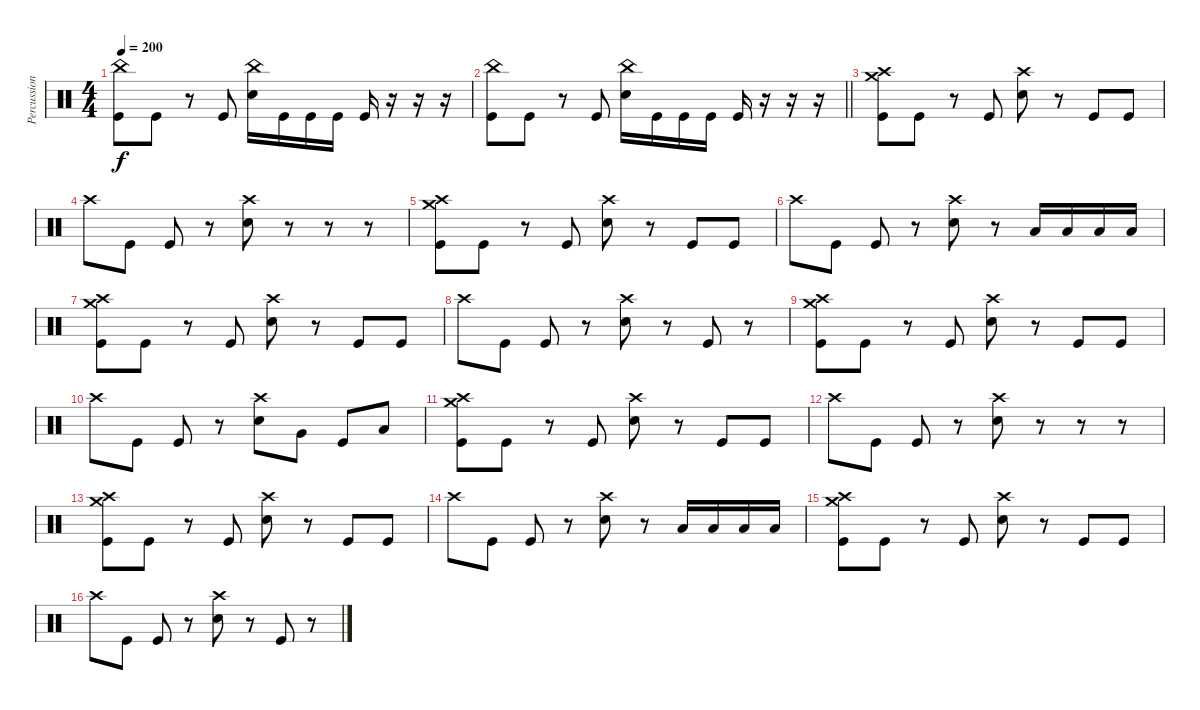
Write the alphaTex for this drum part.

\track ("Percussion" "Percussion") {instrument percussion}
\staff {score}
\articulation defaults
\ts (4 4)
\tempo 200
\clef neutral
\ks c
("China (hit)" "Kick (hit)").8{dy f} "Kick (hit)".8 r.8 "Kick (hit)".8 ("Snare (hit) 2" "China (hit)").16 "Kick (hit)".16 "Kick (hit)".16 "Kick (hit)".16 "Kick (hit)".16 r.16 r.16 r.16 |
\barLineRight lightlight
("China (hit)" "Kick (hit)").8 "Kick (hit)".8 r.8 "Kick (hit)".8 ("Snare (hit) 2" "China (hit)").16 "Kick (hit)".16 "Kick (hit)".16 "Kick (hit)".16 "Kick (hit)".16 r.16 r.16 r.16 |
("Crash high (hit)" "Crash medium (hit)" "Kick (hit)").8 "Kick (hit)".8 r.8 "Kick (hit)".8 ("Crash high (hit)" "Snare (hit) 2").8 r.8 "Kick (hit)".8 "Kick (hit)".8 |
"Crash high (hit)".8 "Kick (hit)".8 "Kick (hit)".8 r.8 ("Crash high (hit)" "Snare (hit) 2").8 r.8 r.8 r.8 |
("Crash high (hit)" "Crash medium (hit)" "Kick (hit)").8 "Kick (hit)".8 r.8 "Kick (hit)".8 ("Crash high (hit)" "Snare (hit) 2").8 r.8 "Kick (hit)".8 "Kick (hit)".8 |
"Crash high (hit)".8 "Kick (hit)".8 "Kick (hit)".8 r.8 ("Crash high (hit)" "Snare (hit) 2").8 r.8 "Low Tom (hit)".16 "Low Tom (hit)".16 "Low Tom (hit)".16 "Low Tom (hit)".16 |
("Crash high (hit)" "Crash medium (hit)" "Kick (hit)").8 "Kick (hit)".8 r.8 "Kick (hit)".8 ("Crash high (hit)" "Snare (hit) 2").8 r.8 "Kick (hit)".8 "Kick (hit)".8 |
"Crash high (hit)".8 "Kick (hit)".8 "Kick (hit)".8 r.8 ("Crash high (hit)" "Snare (hit) 2").8 r.8 "Kick (hit)".8 r.8 |
("Crash high (hit)" "Crash medium (hit)" "Kick (hit)").8 "Kick (hit)".8 r.8 "Kick (hit)".8 ("Crash high (hit)" "Snare (hit) 2").8 r.8 "Kick (hit)".8 "Kick (hit)".8 |
"Crash high (hit)".8 "Kick (hit)".8 "Kick (hit)".8 r.8 ("Crash high (hit)" "Snare (hit) 2").8 "Very Low Tom (hit)".8 "Kick (hit)".8 "Low Floor Tom (hit)".8 |
("Crash high (hit)" "Crash medium (hit)" "Kick (hit)").8 "Kick (hit)".8 r.8 "Kick (hit)".8 ("Crash high (hit)" "Snare (hit) 2").8 r.8 "Kick (hit)".8 "Kick (hit)".8 |
"Crash high (hit)".8 "Kick (hit)".8 "Kick (hit)".8 r.8 ("Crash high (hit)" "Snare (hit) 2").8 r.8 r.8 r.8 |
("Crash high (hit)" "Crash medium (hit)" "Kick (hit)").8 "Kick (hit)".8 r.8 "Kick (hit)".8 ("Crash high (hit)" "Snare (hit) 2").8 r.8 "Kick (hit)".8 "Kick (hit)".8 |
"Crash high (hit)".8 "Kick (hit)".8 "Kick (hit)".8 r.8 ("Crash high (hit)" "Snare (hit) 2").8 r.8 "Low Tom (hit)".16 "Low Tom (hit)".16 "Low Tom (hit)".16 "Low Tom (hit)".16 |
("Crash high (hit)" "Crash medium (hit)" "Kick (hit)").8 "Kick (hit)".8 r.8 "Kick (hit)".8 ("Crash high (hit)" "Snare (hit) 2").8 r.8 "Kick (hit)".8 "Kick (hit)".8 |
"Crash high (hit)".8 "Kick (hit)".8 "Kick (hit)".8 r.8 ("Crash high (hit)" "Snare (hit) 2").8 r.8 "Kick (hit)".8 r.8
